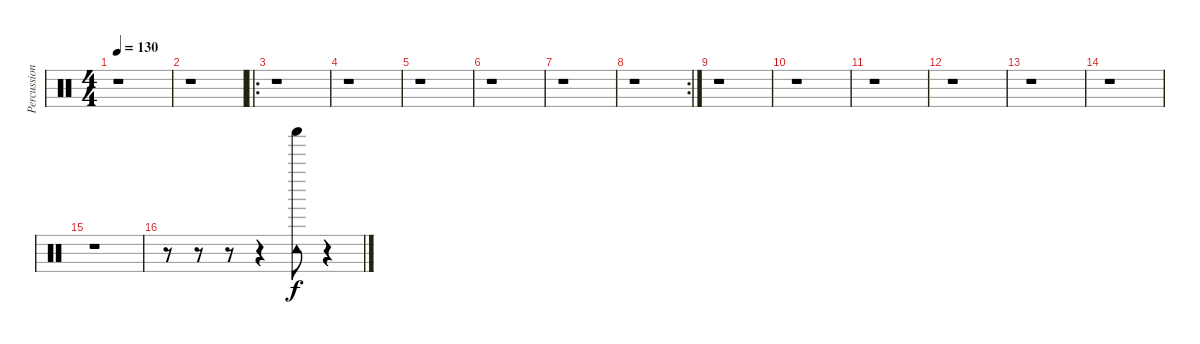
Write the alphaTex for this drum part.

\track ("Percussion" "Percussion") {instrument percussion}
\staff {score}
\articulation defaults
\ts (4 4)
\tempo 130
\clef neutral
\ks c
r.1{dy f} |
r.1 |
\ro
r.1 |
r.1 |
r.1 |
r.1 |
r.1 |
\rc 2
r.1 |
r.1 |
r.1 |
r.1 |
r.1 |
r.1 |
r.1 |
r.1 |
r.8 r.8 r.8 r.4 ("Shaker (hit)" "Tambourine (hit)").8 r.4
